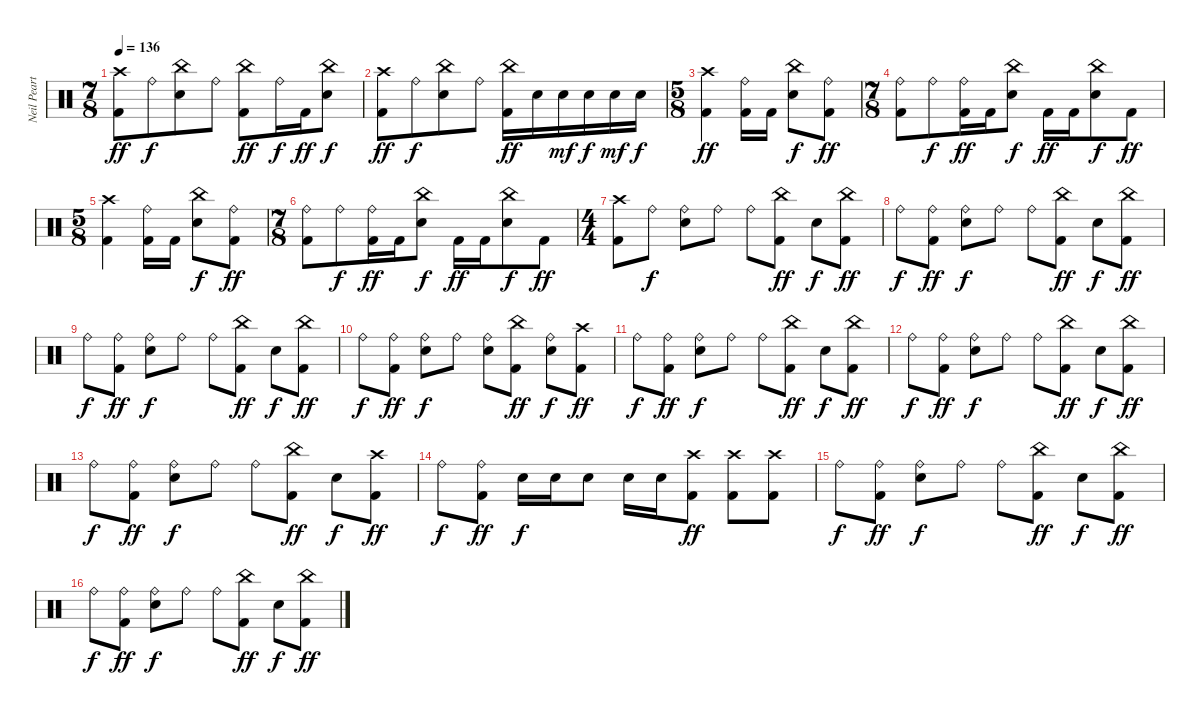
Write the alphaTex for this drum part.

\track ("Neil Peart" "Neil Peart") {instrument percussion}
\staff {score}
\articulation defaults
\ts (7 8)
\tempo 136
\clef neutral
\ks c
("Crash high (hit)" "Kick (hit) 2").8{dy ff} "Ride (bell)".8{dy f} ("China (hit)" "Snare (hit) 2").8 "Ride (bell)".8 ("China (hit)" "Kick (hit) 2").8{dy ff} "Ride (bell)".16{dy f} "Kick (hit) 2".16{dy ff} ("China (hit)" "Snare (hit) 2").8{dy f} |
("Crash high (hit)" "Kick (hit) 2").8{dy ff} "Ride (bell)".8{dy f} ("China (hit)" "Snare (hit) 2").8 "Ride (bell)".8 ("China (hit)" "Kick (hit) 2").16{dy ff} "Snare (hit) 2".16 "Snare (hit) 2".16{dy mf} "Snare (hit) 2".16{dy f} "Snare (hit) 2".16{dy mf} "Snare (hit) 2".16{dy f} |
\ts (5 8)
("Crash high (hit)" "Kick (hit) 2").4{dy ff} ("Ride (bell)" "Kick (hit) 2").16 "Kick (hit) 2".16 ("China (hit)" "Snare (hit) 2").8{dy f} ("Ride (bell)" "Kick (hit) 2").8{dy ff} |
\ts (7 8)
("Ride (bell)" "Kick (hit) 2").8 "Ride (bell)".8{dy f} ("Ride (bell)" "Kick (hit) 2").16{dy ff} "Kick (hit) 2".16 ("China (hit)" "Snare (hit) 2").8{dy f} "Kick (hit) 2".16{dy ff} "Kick (hit) 2".16 ("China (hit)" "Snare (hit) 2").8{dy f} "Kick (hit) 2".8{dy ff} |
\ts (5 8)
("Crash high (hit)" "Kick (hit) 2").4 ("Ride (bell)" "Kick (hit) 2").16 "Kick (hit) 2".16 ("China (hit)" "Snare (hit) 2").8{dy f} ("Ride (bell)" "Kick (hit) 2").8{dy ff} |
\ts (7 8)
("Ride (bell)" "Kick (hit) 2").8 "Ride (bell)".8{dy f} ("Ride (bell)" "Kick (hit) 2").16{dy ff} "Kick (hit) 2".16 ("China (hit)" "Snare (hit) 2").8{dy f} "Kick (hit) 2".16{dy ff} "Kick (hit) 2".16 ("China (hit)" "Snare (hit) 2").8{dy f} "Kick (hit) 2".8{dy ff} |
\ts (4 4)
("Crash high (hit)" "Kick (hit) 2").8 "Ride (bell)".8{dy f} ("Ride (bell)" "Snare (hit) 2").8 "Ride (bell)".8 "Ride (bell)".8 ("China (hit)" "Kick (hit) 2").8{dy ff} "Snare (hit) 2".8{dy f} ("China (hit)" "Kick (hit) 2").8{dy ff} |
"Ride (bell)".8{dy f} ("Ride (bell)" "Kick (hit) 2").8{dy ff} ("Ride (bell)" "Snare (hit) 2").8{dy f} "Ride (bell)".8 "Ride (bell)".8 ("China (hit)" "Kick (hit) 2").8{dy ff} "Snare (hit) 2".8{dy f} ("China (hit)" "Kick (hit) 2").8{dy ff} |
"Ride (bell)".8{dy f} ("Ride (bell)" "Kick (hit) 2").8{dy ff} ("Ride (bell)" "Snare (hit) 2").8{dy f} "Ride (bell)".8 "Ride (bell)".8 ("China (hit)" "Kick (hit) 2").8{dy ff} "Snare (hit) 2".8{dy f} ("China (hit)" "Kick (hit) 2").8{dy ff} |
"Ride (bell)".8{dy f} ("Ride (bell)" "Kick (hit) 2").8{dy ff} ("Ride (bell)" "Snare (hit) 2").8{dy f} "Ride (bell)".8 ("Ride (bell)" "Snare (hit) 2").8 ("China (hit)" "Kick (hit) 2").8{dy ff} ("Ride (bell)" "Snare (hit) 2").8{dy f} ("Crash high (hit)" "Kick (hit) 2").8{dy ff} |
"Ride (bell)".8{dy f} ("Ride (bell)" "Kick (hit) 2").8{dy ff} ("Ride (bell)" "Snare (hit) 2").8{dy f} "Ride (bell)".8 "Ride (bell)".8 ("China (hit)" "Kick (hit) 2").8{dy ff} "Snare (hit) 2".8{dy f} ("China (hit)" "Kick (hit) 2").8{dy ff} |
"Ride (bell)".8{dy f} ("Ride (bell)" "Kick (hit) 2").8{dy ff} ("Ride (bell)" "Snare (hit) 2").8{dy f} "Ride (bell)".8 "Ride (bell)".8 ("China (hit)" "Kick (hit) 2").8{dy ff} "Snare (hit) 2".8{dy f} ("China (hit)" "Kick (hit) 2").8{dy ff} |
"Ride (bell)".8{dy f} ("Ride (bell)" "Kick (hit) 2").8{dy ff} ("Ride (bell)" "Snare (hit) 2").8{dy f} "Ride (bell)".8 "Ride (bell)".8 ("China (hit)" "Kick (hit) 2").8{dy ff} "Snare (hit) 2".8{dy f} ("Crash high (hit)" "Kick (hit) 2").8{dy ff} |
"Ride (bell)".8{dy f} ("Ride (bell)" "Kick (hit) 2").8{dy ff} "Snare (hit) 2".16{dy f} "Snare (hit) 2".16 "Snare (hit) 2".8 "Snare (hit) 2".16 "Snare (hit) 2".16 ("Crash high (hit)" "Kick (hit) 2").8{dy ff} ("Crash high (hit)" "Kick (hit) 2").8 ("Crash high (hit)" "Kick (hit) 2").8 |
"Ride (bell)".8{dy f} ("Ride (bell)" "Kick (hit) 2").8{dy ff} ("Ride (bell)" "Snare (hit) 2").8{dy f} "Ride (bell)".8 "Ride (bell)".8 ("China (hit)" "Kick (hit) 2").8{dy ff} "Snare (hit) 2".8{dy f} ("China (hit)" "Kick (hit) 2").8{dy ff} |
"Ride (bell)".8{dy f} ("Ride (bell)" "Kick (hit) 2").8{dy ff} ("Ride (bell)" "Snare (hit) 2").8{dy f} "Ride (bell)".8 "Ride (bell)".8 ("China (hit)" "Kick (hit) 2").8{dy ff} "Snare (hit) 2".8{dy f} ("China (hit)" "Kick (hit) 2").8{dy ff}
